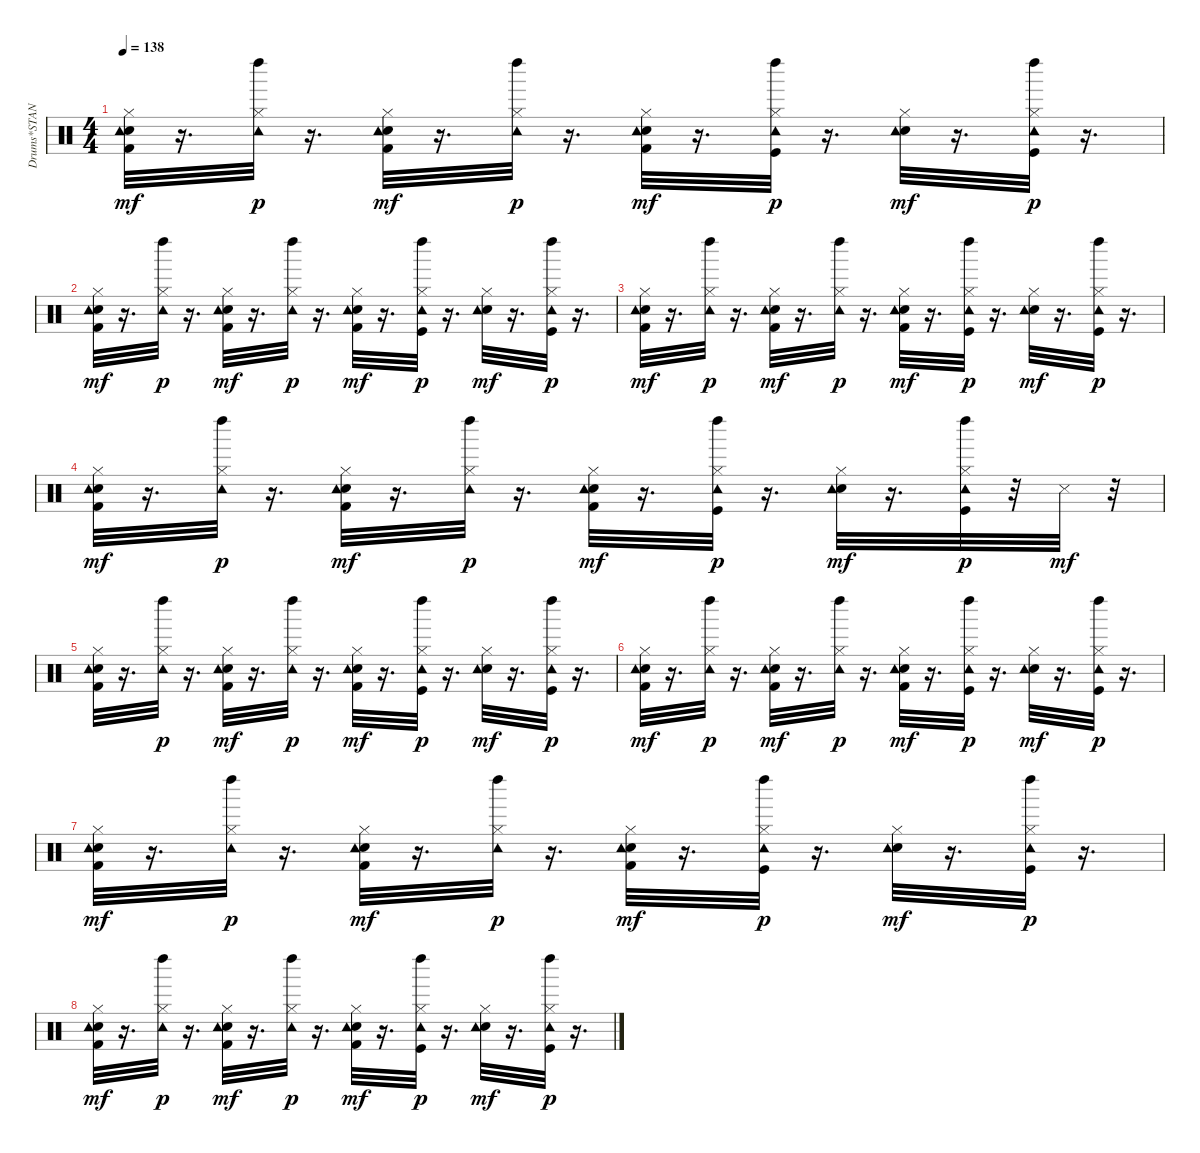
\track ("Drums*STANDARD      " "Drums*STAN") {instrument percussion}
\staff {score}
\articulation defaults
\ts (4 4)
\tempo 138
\clef neutral
\ks c
("Kick (hit) 2" "Hi-Hat (closed)" "Electric Snare (hit)" "Tambourine (hit)").32{dy mf} r.16{d} ("Hi-Hat (closed)" "Left Maraca (hit)" "Tambourine (hit)").32{dy p} r.16{d} ("Kick (hit) 2" "Hi-Hat (closed)" "Electric Snare (hit)" "Tambourine (hit)").32{dy mf} r.16{d} ("Hi-Hat (closed)" "Left Maraca (hit)" "Tambourine (hit)").32{dy p} r.16{d} ("Kick (hit) 2" "Hi-Hat (closed)" "Electric Snare (hit)" "Tambourine (hit)").32{dy mf} r.16{d} ("Hi-Hat (closed)" "Left Maraca (hit)" "Kick (hit)" "Tambourine (hit)").32{dy p} r.16{d} ("Hi-Hat (closed)" "Electric Snare (hit)" "Tambourine (hit)").32{dy mf} r.16{d} ("Hi-Hat (closed)" "Left Maraca (hit)" "Kick (hit)" "Tambourine (hit)").32{dy p} r.16{d} |
("Kick (hit) 2" "Hi-Hat (closed)" "Electric Snare (hit)" "Tambourine (hit)").32{dy mf} r.16{d} ("Hi-Hat (closed)" "Left Maraca (hit)" "Tambourine (hit)").32{dy p} r.16{d} ("Kick (hit) 2" "Hi-Hat (closed)" "Electric Snare (hit)" "Tambourine (hit)").32{dy mf} r.16{d} ("Hi-Hat (closed)" "Left Maraca (hit)" "Tambourine (hit)").32{dy p} r.16{d} ("Kick (hit) 2" "Hi-Hat (closed)" "Electric Snare (hit)" "Tambourine (hit)").32{dy mf} r.16{d} ("Hi-Hat (closed)" "Left Maraca (hit)" "Kick (hit)" "Tambourine (hit)").32{dy p} r.16{d} ("Hi-Hat (closed)" "Electric Snare (hit)" "Tambourine (hit)").32{dy mf} r.16{d} ("Hi-Hat (closed)" "Left Maraca (hit)" "Kick (hit)" "Tambourine (hit)").32{dy p} r.16{d} |
("Kick (hit) 2" "Hi-Hat (closed)" "Electric Snare (hit)" "Tambourine (hit)").32{dy mf} r.16{d} ("Hi-Hat (closed)" "Left Maraca (hit)" "Tambourine (hit)").32{dy p} r.16{d} ("Kick (hit) 2" "Hi-Hat (closed)" "Electric Snare (hit)" "Tambourine (hit)").32{dy mf} r.16{d} ("Hi-Hat (closed)" "Left Maraca (hit)" "Tambourine (hit)").32{dy p} r.16{d} ("Kick (hit) 2" "Hi-Hat (closed)" "Electric Snare (hit)" "Tambourine (hit)").32{dy mf} r.16{d} ("Hi-Hat (closed)" "Left Maraca (hit)" "Kick (hit)" "Tambourine (hit)").32{dy p} r.16{d} ("Hi-Hat (closed)" "Electric Snare (hit)" "Tambourine (hit)").32{dy mf} r.16{d} ("Hi-Hat (closed)" "Left Maraca (hit)" "Kick (hit)" "Tambourine (hit)").32{dy p} r.16{d} |
("Kick (hit) 2" "Hi-Hat (closed)" "Electric Snare (hit)" "Tambourine (hit)").32{dy mf} r.16{d} ("Hi-Hat (closed)" "Left Maraca (hit)" "Tambourine (hit)").32{dy p} r.16{d} ("Kick (hit) 2" "Hi-Hat (closed)" "Electric Snare (hit)" "Tambourine (hit)").32{dy mf} r.16{d} ("Hi-Hat (closed)" "Left Maraca (hit)" "Tambourine (hit)").32{dy p} r.16{d} ("Kick (hit) 2" "Hi-Hat (closed)" "Electric Snare (hit)" "Tambourine (hit)").32{dy mf} r.16{d} ("Hi-Hat (closed)" "Left Maraca (hit)" "Kick (hit)" "Tambourine (hit)").32{dy p} r.16{d} ("Hi-Hat (closed)" "Electric Snare (hit)" "Tambourine (hit)").32{dy mf} r.16{d} ("Hi-Hat (closed)" "Left Maraca (hit)" "Kick (hit)" "Tambourine (hit)").32{dy p} r.32 "Snare (side stick) 3".32{dy mf} r.32 |
("Kick (hit) 2" "Hi-Hat (closed)" "Electric Snare (hit)" "Tambourine (hit)").32 r.16{d} ("Hi-Hat (closed)" "Left Maraca (hit)" "Tambourine (hit)").32{dy p} r.16{d} ("Kick (hit) 2" "Hi-Hat (closed)" "Electric Snare (hit)" "Tambourine (hit)").32{dy mf} r.16{d} ("Hi-Hat (closed)" "Left Maraca (hit)" "Tambourine (hit)").32{dy p} r.16{d} ("Kick (hit) 2" "Hi-Hat (closed)" "Electric Snare (hit)" "Tambourine (hit)").32{dy mf} r.16{d} ("Hi-Hat (closed)" "Left Maraca (hit)" "Kick (hit)" "Tambourine (hit)").32{dy p} r.16{d} ("Hi-Hat (closed)" "Electric Snare (hit)" "Tambourine (hit)").32{dy mf} r.16{d} ("Hi-Hat (closed)" "Left Maraca (hit)" "Kick (hit)" "Tambourine (hit)").32{dy p} r.16{d} |
("Kick (hit) 2" "Hi-Hat (closed)" "Electric Snare (hit)" "Tambourine (hit)").32{dy mf} r.16{d} ("Hi-Hat (closed)" "Left Maraca (hit)" "Tambourine (hit)").32{dy p} r.16{d} ("Kick (hit) 2" "Hi-Hat (closed)" "Electric Snare (hit)" "Tambourine (hit)").32{dy mf} r.16{d} ("Hi-Hat (closed)" "Left Maraca (hit)" "Tambourine (hit)").32{dy p} r.16{d} ("Kick (hit) 2" "Hi-Hat (closed)" "Electric Snare (hit)" "Tambourine (hit)").32{dy mf} r.16{d} ("Hi-Hat (closed)" "Left Maraca (hit)" "Kick (hit)" "Tambourine (hit)").32{dy p} r.16{d} ("Hi-Hat (closed)" "Electric Snare (hit)" "Tambourine (hit)").32{dy mf} r.16{d} ("Hi-Hat (closed)" "Left Maraca (hit)" "Kick (hit)" "Tambourine (hit)").32{dy p} r.16{d} |
("Kick (hit) 2" "Hi-Hat (closed)" "Electric Snare (hit)" "Tambourine (hit)").32{dy mf} r.16{d} ("Hi-Hat (closed)" "Left Maraca (hit)" "Tambourine (hit)").32{dy p} r.16{d} ("Kick (hit) 2" "Hi-Hat (closed)" "Electric Snare (hit)" "Tambourine (hit)").32{dy mf} r.16{d} ("Hi-Hat (closed)" "Left Maraca (hit)" "Tambourine (hit)").32{dy p} r.16{d} ("Kick (hit) 2" "Hi-Hat (closed)" "Electric Snare (hit)" "Tambourine (hit)").32{dy mf} r.16{d} ("Hi-Hat (closed)" "Left Maraca (hit)" "Kick (hit)" "Tambourine (hit)").32{dy p} r.16{d} ("Hi-Hat (closed)" "Electric Snare (hit)" "Tambourine (hit)").32{dy mf} r.16{d} ("Hi-Hat (closed)" "Left Maraca (hit)" "Kick (hit)" "Tambourine (hit)").32{dy p} r.16{d} |
("Kick (hit) 2" "Hi-Hat (closed)" "Electric Snare (hit)" "Tambourine (hit)").32{dy mf} r.16{d} ("Hi-Hat (closed)" "Left Maraca (hit)" "Tambourine (hit)").32{dy p} r.16{d} ("Kick (hit) 2" "Hi-Hat (closed)" "Electric Snare (hit)" "Tambourine (hit)").32{dy mf} r.16{d} ("Hi-Hat (closed)" "Left Maraca (hit)" "Tambourine (hit)").32{dy p} r.16{d} ("Kick (hit) 2" "Hi-Hat (closed)" "Electric Snare (hit)" "Tambourine (hit)").32{dy mf} r.16{d} ("Hi-Hat (closed)" "Left Maraca (hit)" "Kick (hit)" "Tambourine (hit)").32{dy p} r.16{d} ("Hi-Hat (closed)" "Electric Snare (hit)" "Tambourine (hit)").32{dy mf} r.16{d} ("Hi-Hat (closed)" "Left Maraca (hit)" "Kick (hit)" "Tambourine (hit)").32{dy p} r.16{d}
